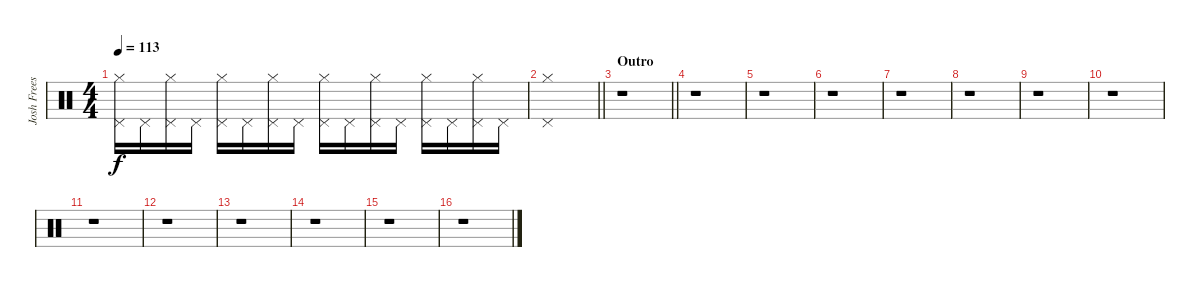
\track ("Josh Freese (Studio Drummer)" "Josh Frees") {instrument percussion}
\staff {score}
\articulation defaults
\ts (4 4)
\tempo 113
\clef neutral
\ks c
("Pedal Hi-Hat (hit)" "Hi-Hat (closed)").16{dy f} "Pedal Hi-Hat (hit)".16 ("Pedal Hi-Hat (hit)" "Hi-Hat (closed)").16 "Pedal Hi-Hat (hit)".16 ("Pedal Hi-Hat (hit)" "Hi-Hat (closed)").16 "Pedal Hi-Hat (hit)".16 ("Pedal Hi-Hat (hit)" "Hi-Hat (closed)").16 "Pedal Hi-Hat (hit)".16 ("Pedal Hi-Hat (hit)" "Hi-Hat (closed)").16 "Pedal Hi-Hat (hit)".16 ("Pedal Hi-Hat (hit)" "Hi-Hat (closed)").16 "Pedal Hi-Hat (hit)".16 ("Pedal Hi-Hat (hit)" "Hi-Hat (closed)").16 "Pedal Hi-Hat (hit)".16 ("Pedal Hi-Hat (hit)" "Hi-Hat (closed)").16 "Pedal Hi-Hat (hit)".16 |
\barLineRight lightlight
("Pedal Hi-Hat (hit)" "Hi-Hat (closed)").1 |
\section ("" "Outro")
\barLineRight lightlight
r.1 |
r.1 |
r.1 |
r.1 |
r.1 |
r.1 |
r.1 |
r.1 |
r.1 |
r.1 |
r.1 |
r.1 |
r.1 |
r.1
